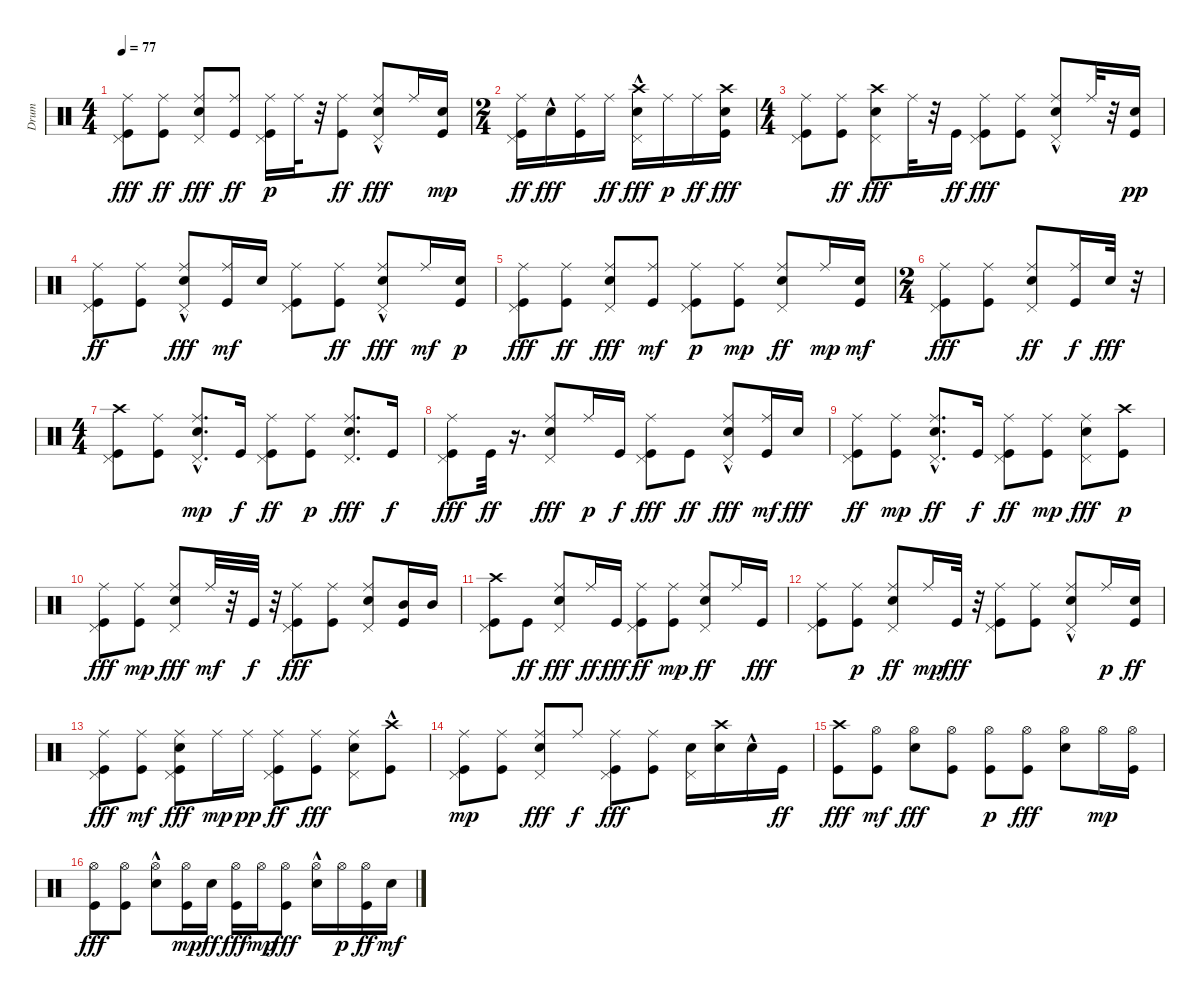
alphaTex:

\track ("Drum" "Drum") {instrument percussion}
\staff {score}
\articulation defaults
\ts (4 4)
\tempo 77
\clef neutral
\ks c
("Kick (hit)" "Pedal Hi-Hat (hit)" "Ride (middle)").8{dy fff} ("Kick (hit)" "Ride (middle)").8{dy ff} ("Pedal Hi-Hat (hit)" "Snare (hit) 2" "Ride (middle)").8{dy fff} ("Kick (hit)" "Ride (middle)").8{dy ff} ("Kick (hit)" "Pedal Hi-Hat (hit)" "Ride (middle)").16{dy p} "Ride (middle)".32 r.32 ("Kick (hit)" "Ride (middle)").8{dy ff} ("Pedal Hi-Hat (hit)" "Snare (hit) 2"{hac} "Ride (middle)").8{dy fff} "Ride (middle)".16 ("Kick (hit)" "Snare (hit) 2").16{dy mp} |
\ts (2 4)
("Kick (hit)" "Pedal Hi-Hat (hit)" "Ride (middle)").16{dy ff} "Snare (hit) 2"{hac}.16{dy fff} ("Kick (hit)" "Ride (middle)").16 "Ride (middle)".16{dy ff} ("Pedal Hi-Hat (hit)" "Crash high (hit)"{hac} "Snare (hit) 2"{hac}).16{dy fff} "Ride (middle)".16{dy p} "Ride (middle)".16{dy ff} ("Kick (hit)" "Crash high (hit)" "Snare (hit) 2").16{dy fff} |
\ts (4 4)
("Kick (hit)" "Pedal Hi-Hat (hit)" "Ride (middle)").8 ("Kick (hit)" "Ride (middle)").8{dy ff} ("Pedal Hi-Hat (hit)" "Crash high (hit)" "Snare (hit) 2").8{dy fff} "Ride (middle)".32 r.32 "Kick (hit)".16{dy ff} ("Kick (hit)" "Pedal Hi-Hat (hit)" "Ride (middle)").8{dy fff} ("Kick (hit)" "Ride (middle)").8 ("Pedal Hi-Hat (hit)" "Snare (hit) 2"{hac} "Ride (middle)").8 "Ride (middle)".32 r.32 ("Kick (hit)" "Snare (hit) 2").16{dy pp} |
("Kick (hit)" "Pedal Hi-Hat (hit)" "Ride (middle)").8{dy ff} ("Kick (hit)" "Ride (middle)").8 ("Pedal Hi-Hat (hit)" "Snare (hit) 2"{hac} "Ride (middle)").8{dy fff} ("Kick (hit)" "Ride (middle)").16{dy mf} "Snare (hit) 2".16 ("Kick (hit)" "Pedal Hi-Hat (hit)" "Ride (middle)").8 ("Kick (hit)" "Ride (middle)").8{dy ff} ("Pedal Hi-Hat (hit)" "Snare (hit) 2"{hac} "Ride (middle)").8{dy fff} "Ride (middle)".16{dy mf} ("Kick (hit)" "Snare (hit) 2").16{dy p} |
("Kick (hit)" "Pedal Hi-Hat (hit)" "Ride (middle)").8{dy fff} ("Kick (hit)" "Ride (middle)").8{dy ff} ("Pedal Hi-Hat (hit)" "Snare (hit) 2" "Ride (middle)").8{dy fff} ("Kick (hit)" "Ride (middle)").8{dy mf} ("Kick (hit)" "Pedal Hi-Hat (hit)" "Ride (middle)").8{dy p} ("Kick (hit)" "Ride (middle)").8{dy mp} ("Pedal Hi-Hat (hit)" "Snare (hit) 2" "Ride (middle)").8{dy ff} "Ride (middle)".16{dy mp} ("Kick (hit)" "Snare (hit) 2").16{dy mf} |
\ts (2 4)
("Kick (hit)" "Pedal Hi-Hat (hit)" "Ride (middle)").8{dy fff} ("Kick (hit)" "Ride (middle)").8 ("Pedal Hi-Hat (hit)" "Snare (hit) 2" "Ride (middle)").8{dy ff} ("Kick (hit)" "Ride (middle)").16{dy f} "Snare (hit) 2".32{dy fff} r.32 |
\ts (4 4)
("Kick (hit)" "Pedal Hi-Hat (hit)" "Crash high (hit)").8 ("Kick (hit)" "Ride (middle)").8 ("Pedal Hi-Hat (hit)"{hac} "Snare (hit) 2" "Ride (middle)").8{d dy mp} "Kick (hit)".16{dy f} ("Kick (hit)" "Pedal Hi-Hat (hit)" "Ride (middle)").8{dy ff} ("Kick (hit)" "Ride (middle)").8{dy p} ("Pedal Hi-Hat (hit)" "Snare (hit) 2" "Ride (middle)").8{d dy fff} "Kick (hit)".16{dy f} |
("Kick (hit)" "Pedal Hi-Hat (hit)" "Ride (middle)").8{dy fff} "Kick (hit)".32{dy ff} r.16{d} ("Pedal Hi-Hat (hit)" "Snare (hit) 2" "Ride (middle)").8{dy fff} "Ride (middle)".16{dy p} "Kick (hit)".16{dy f} ("Kick (hit)" "Pedal Hi-Hat (hit)" "Ride (middle)").8{dy fff} "Kick (hit)".8{dy ff} ("Pedal Hi-Hat (hit)" "Snare (hit) 2"{hac} "Ride (middle)").8{dy fff} ("Kick (hit)" "Ride (middle)").16{dy mf} "Snare (hit) 2".16{dy fff} |
("Kick (hit)" "Pedal Hi-Hat (hit)" "Ride (middle)").8{dy ff} ("Kick (hit)" "Ride (middle)").8{dy mp} ("Pedal Hi-Hat (hit)" "Snare (hit) 2"{hac} "Ride (middle)").8{d dy ff} "Kick (hit)".16{dy f} ("Kick (hit)" "Pedal Hi-Hat (hit)" "Ride (middle)").8{dy ff} ("Kick (hit)" "Ride (middle)").8{dy mp} ("Pedal Hi-Hat (hit)" "Snare (hit) 2" "Ride (middle)").8{dy fff} ("Kick (hit)" "Crash high (hit)").8{dy p} |
("Kick (hit)" "Pedal Hi-Hat (hit)" "Ride (middle)").8{dy fff} ("Kick (hit)" "Ride (middle)").8{dy mp} ("Pedal Hi-Hat (hit)" "Snare (hit) 2" "Ride (middle)").8{dy fff} "Ride (middle)".32{dy mf} r.32 "Kick (hit)".32{dy f} r.32 ("Kick (hit)" "Pedal Hi-Hat (hit)" "Ride (middle)").8{dy fff} ("Kick (hit)" "Ride (middle)").8 ("Pedal Hi-Hat (hit)" "Snare (hit) 2" "Ride (middle)").8 ("Kick (hit)" "Mid Tom (hit)").16 "Mid Tom (hit)".16 |
("Kick (hit)" "Pedal Hi-Hat (hit)" "Crash high (hit)").8 "Kick (hit)".8{dy ff} ("Pedal Hi-Hat (hit)" "Snare (hit) 2" "Ride (middle)").8{dy fff} "Ride (middle)".16{dy ff} "Kick (hit)".16{dy fff} ("Kick (hit)" "Pedal Hi-Hat (hit)" "Ride (middle)").8{dy ff} ("Kick (hit)" "Ride (middle)").8{dy mp} ("Pedal Hi-Hat (hit)" "Snare (hit) 2" "Ride (middle)").8{dy ff} "Ride (middle)".16 "Kick (hit)".16{dy fff} |
("Kick (hit)" "Pedal Hi-Hat (hit)" "Ride (middle)").8 ("Kick (hit)" "Ride (middle)").8{dy p} ("Pedal Hi-Hat (hit)" "Snare (hit) 2" "Ride (middle)").8{dy ff} "Ride (middle)".16{dy mp} "Kick (hit)".32{dy fff} r.32 ("Kick (hit)" "Pedal Hi-Hat (hit)" "Ride (middle)").8 ("Kick (hit)" "Ride (middle)").8 ("Pedal Hi-Hat (hit)" "Snare (hit) 2"{hac} "Ride (middle)").8 "Ride (middle)".16{dy p} ("Kick (hit)" "Snare (hit) 2").16{dy ff} |
("Kick (hit)" "Pedal Hi-Hat (hit)" "Ride (middle)").8{dy fff} ("Kick (hit)" "Ride (middle)").8{dy mf} ("Kick (hit)" "Pedal Hi-Hat (hit)" "Snare (hit) 2" "Ride (middle)").8{dy fff} "Ride (middle)".16{dy mp} "Ride (middle)".16{dy pp} ("Kick (hit)" "Pedal Hi-Hat (hit)" "Ride (middle)").8{dy ff} ("Kick (hit)" "Ride (middle)").8{dy fff} ("Pedal Hi-Hat (hit)" "Snare (hit) 2" "Ride (middle)").8 ("Kick (hit)" "Crash high (hit)"{hac}).8 |
("Kick (hit)" "Pedal Hi-Hat (hit)" "Ride (middle)").8{dy mp} ("Kick (hit)" "Ride (middle)").8 ("Pedal Hi-Hat (hit)" "Snare (hit) 2" "Ride (middle)").8{dy fff} "Ride (middle)".8{dy f} ("Kick (hit)" "Pedal Hi-Hat (hit)" "Ride (middle)").8{dy fff} ("Kick (hit)" "Ride (middle)").8 ("Pedal Hi-Hat (hit)" "Snare (hit) 2").16 ("Crash high (hit)" "Snare (hit) 2").16 "Snare (hit) 2"{hac}.16 "Kick (hit)".16{dy ff} |
("Kick (hit)" "Crash high (hit)").8{dy fff} ("Kick (hit)" "Hi-Hat (open)").8{dy mf} ("Hi-Hat (open)" "Snare (hit) 2").8{dy fff} ("Kick (hit)" "Hi-Hat (open)").8 ("Kick (hit)" "Hi-Hat (open)").8{dy p} ("Kick (hit)" "Hi-Hat (open)").8{dy fff} ("Hi-Hat (open)" "Snare (hit) 2").8 "Hi-Hat (open)".16{dy mp} ("Kick (hit)" "Hi-Hat (open)").16 |
("Kick (hit)" "Hi-Hat (open)").8{dy fff} ("Kick (hit)" "Hi-Hat (open)").8 ("Hi-Hat (open)" "Snare (hit) 2"{hac}).8 ("Kick (hit)" "Hi-Hat (open)").16{dy mp} "Snare (hit) 2".16{dy ff} ("Kick (hit)" "Hi-Hat (open)").16{dy fff} "Hi-Hat (open)".16{dy mp} ("Kick (hit)" "Hi-Hat (open)").8{dy fff} ("Hi-Hat (open)" "Snare (hit) 2"{hac}).16 "Hi-Hat (open)".16{dy p} ("Kick (hit)" "Hi-Hat (open)").16{dy ff} "Snare (hit) 2".16{dy mf}
